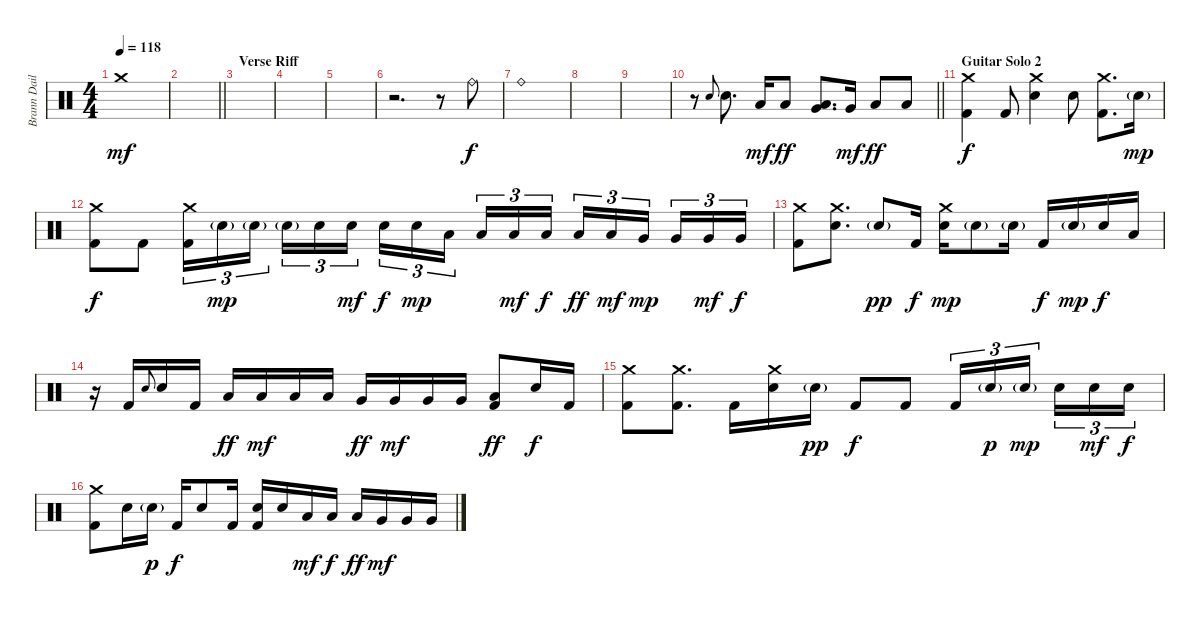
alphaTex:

\track ("Brann Dailor - Drums" "Brann Dail") {instrument percussion}
\staff {score}
\articulation defaults
\ts (4 4)
\tempo 118
\clef neutral
\ks c "Crash medium (hit)".1{dy mf}
|
\barLineRight lightlight
|
\section ("" "Verse Riff")
|
|
|
r.2{d} r.8 "Ride (bell)".8{dy f} |
"Ride (bell)".1 |
|
|
\barLineRight lightlight
r.8 "Electric Snare (hit)".8{gr onbeat} "Electric Snare (hit)".8{d} "Low Tom (hit)".16{dy mf} "Low Tom (hit)".8{dy ff} ("Low Tom (hit)" "Very Low Tom (hit)").8{d} "Very Low Tom (hit)".16{dy mf} "Low Floor Tom (hit)".8{dy ff} "Low Floor Tom (hit)".8 |
\section ("" "Guitar Solo 2")
("Crash medium (hit)" "Kick (hit) 2").4{dy f} "Kick (hit) 2".8 ("Crash medium (hit)" "Electric Snare (hit)").4 "Electric Snare (hit)".8 ("Crash medium (hit)" "Kick (hit) 2").8{d} "Electric Snare (hit)"{g}.16{dy mp} |
("Crash medium (hit)" "Kick (hit) 2").8{dy f} "Kick (hit) 2".8 ("Crash medium (hit)" "Kick (hit) 2").16{tu (3 2)} "Electric Snare (hit)"{g}.16{tu (3 2) dy mp} "Electric Snare (hit)"{g}.16{tu (3 2) beam splitsecondary} "Electric Snare (hit)"{g}.16{tu (3 2)} "Electric Snare (hit)".16{tu (3 2)} "Electric Snare (hit)".16{tu (3 2) dy mf} "Electric Snare (hit)".16{tu (3 2) dy f} "Electric Snare (hit)".16{tu (3 2) dy mp} "Low Tom (hit)".16{tu (3 2) beam splitsecondary} "Low Tom (hit)".16{tu (3 2)} "Low Tom (hit)".16{tu (3 2) dy mf} "Low Tom (hit)".16{tu (3 2) dy f} "Low Tom (hit)".16{tu (3 2) dy ff} "Low Tom (hit)".16{tu (3 2) dy mf} "Very Low Tom (hit)".16{tu (3 2) dy mp beam splitsecondary} "Very Low Tom (hit)".16{tu (3 2)} "Very Low Tom (hit)".16{tu (3 2) dy mf} "Very Low Tom (hit)".16{tu (3 2) dy f} |
("Crash medium (hit)" "Kick (hit) 2").8 ("Crash medium (hit)" "Electric Snare (hit)").8{d} "Electric Snare (hit)"{g}.8{dy pp} "Kick (hit) 2".16{dy f} ("Crash medium (hit)" "Electric Snare (hit)").16{dy mp} "Electric Snare (hit)"{g}.8 "Electric Snare (hit)"{g}.16 "Kick (hit) 2".16{dy f} "Electric Snare (hit)"{g}.16{dy mp} "Electric Snare (hit)".16{dy f} "Low Tom (hit)".16 |
r.16 "Kick (hit) 2".16 "Electric Snare (hit)".8{gr onbeat} "Electric Snare (hit)".16 "Kick (hit) 2".16 "Low Tom (hit)".16{dy ff} "Low Tom (hit)".16{dy mf} "Low Tom (hit)".16 "Low Tom (hit)".16 "Very Low Tom (hit)".16{dy ff} "Very Low Tom (hit)".16{dy mf} "Very Low Tom (hit)".16 "Very Low Tom (hit)".16 ("Low Floor Tom (hit)" "Kick (hit) 2").8{dy ff} "Electric Snare (hit)".16{dy f} "Kick (hit) 2".16 |
("Crash medium (hit)" "Kick (hit) 2").8 ("Crash medium (hit)" "Kick (hit) 2").8{d} "Kick (hit) 2".16 ("Crash medium (hit)" "Electric Snare (hit)").16 "Electric Snare (hit)"{g}.16{dy pp} "Kick (hit) 2".8{dy f} "Kick (hit) 2".8 "Kick (hit) 2".16{tu (3 2)} "Electric Snare (hit)"{g}.16{tu (3 2) dy p} "Electric Snare (hit)"{g}.16{tu (3 2) dy mp beam splitsecondary} "Electric Snare (hit)".16{tu (3 2)} "Electric Snare (hit)".16{tu (3 2) dy mf} "Electric Snare (hit)".16{tu (3 2) dy f} |
("Crash medium (hit)" "Kick (hit) 2").8 "Electric Snare (hit)".16 "Electric Snare (hit)"{g}.16{dy p} "Kick (hit) 2".16{dy f} "Electric Snare (hit)".8 "Kick (hit) 2".16 ("Electric Snare (hit)" "Kick (hit) 2").16{bd 480} "Electric Snare (hit)".16 "Low Tom (hit)".16{dy mf} "Low Tom (hit)".16{dy f} "Low Tom (hit)".16{dy ff} "Very Low Tom (hit)".16{dy mf} "Very Low Tom (hit)".16 "Very Low Tom (hit)".16
